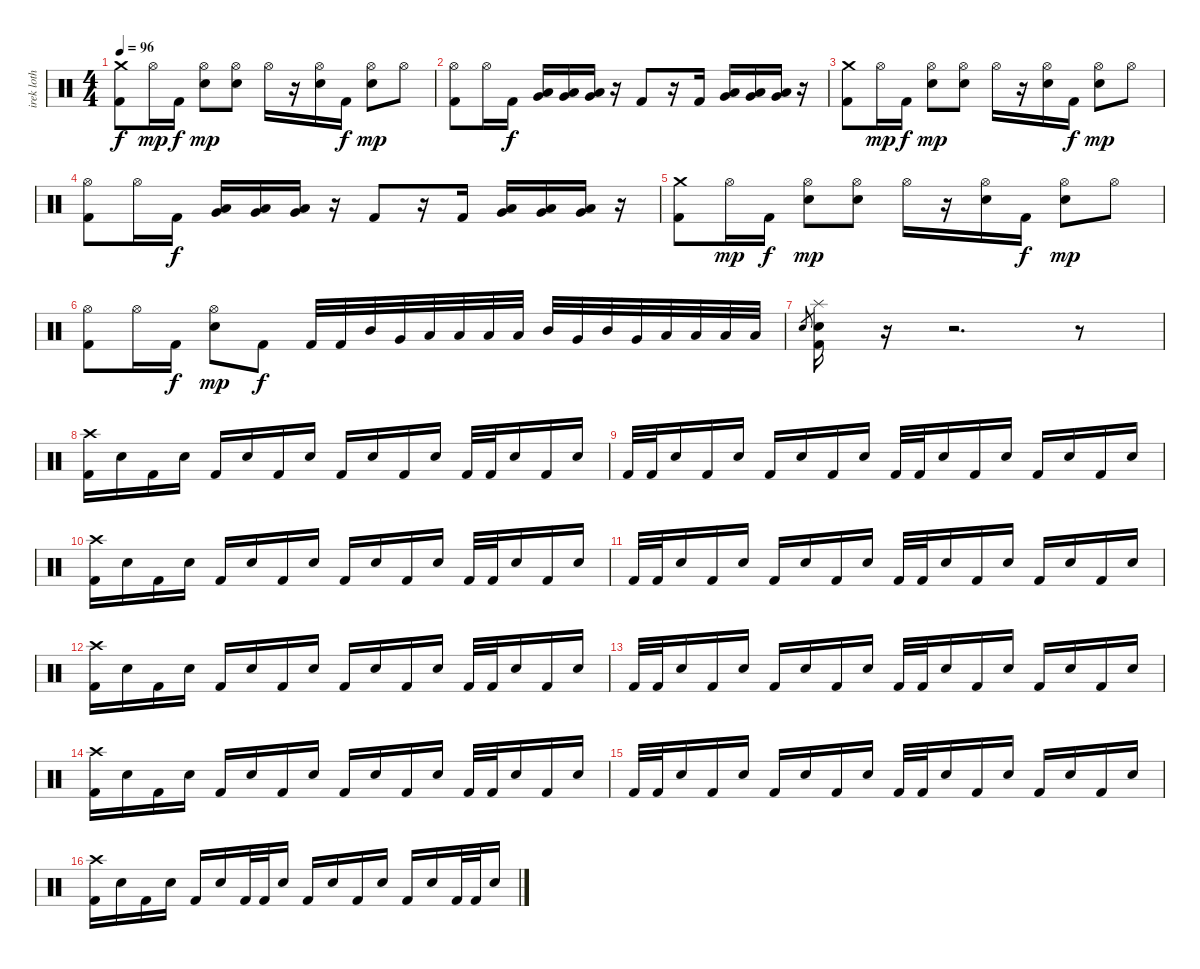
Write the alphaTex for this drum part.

\track ("irek loth" "irek loth") {instrument percussion}
\staff {score}
\articulation defaults
\ts (4 4)
\tempo 96
\clef neutral
\ks c
("Crash medium (hit)" "Kick (hit) 2").8{dy f} "Hi-Hat (open)".16{dy mp} "Kick (hit) 2".16{dy f} ("Snare (hit) 2" "Hi-Hat (open)").8{dy mp} ("Snare (hit) 2" "Hi-Hat (open)").8 "Hi-Hat (open)".16 r.16 ("Snare (hit) 2" "Hi-Hat (open)").16 "Kick (hit) 2".16{dy f} ("Snare (hit) 2" "Hi-Hat (open)").8{dy mp} "Hi-Hat (open)".8 |
("Hi-Hat (open)" "Kick (hit) 2").8 "Hi-Hat (open)".16 "Kick (hit) 2".16{dy f} ("Low Tom (hit)" "Very Low Tom (hit)").16 ("Low Tom (hit)" "Very Low Tom (hit)").16 ("Very Low Tom (hit)" "Low Floor Tom (hit)").16 r.16 "Kick (hit) 2".8 r.16 "Kick (hit) 2".16 ("Low Tom (hit)" "Very Low Tom (hit)").16 ("Low Tom (hit)" "Very Low Tom (hit)").16 ("Very Low Tom (hit)" "Low Floor Tom (hit)").16 r.16 |
("Crash medium (hit)" "Kick (hit) 2").8 "Hi-Hat (open)".16{dy mp} "Kick (hit) 2".16{dy f} ("Snare (hit) 2" "Hi-Hat (open)").8{dy mp} ("Snare (hit) 2" "Hi-Hat (open)").8 "Hi-Hat (open)".16 r.16 ("Snare (hit) 2" "Hi-Hat (open)").16 "Kick (hit) 2".16{dy f} ("Snare (hit) 2" "Hi-Hat (open)").8{dy mp} "Hi-Hat (open)".8 |
("Hi-Hat (open)" "Kick (hit) 2").8 "Hi-Hat (open)".16 "Kick (hit) 2".16{dy f} ("Low Tom (hit)" "Very Low Tom (hit)").16 ("Low Tom (hit)" "Very Low Tom (hit)").16 ("Very Low Tom (hit)" "Low Floor Tom (hit)").16 r.16 "Kick (hit) 2".8 r.16 "Kick (hit) 2".16 ("Low Tom (hit)" "Very Low Tom (hit)").16 ("Low Tom (hit)" "Very Low Tom (hit)").16 ("Very Low Tom (hit)" "Low Floor Tom (hit)").16 r.16 |
("Crash medium (hit)" "Kick (hit) 2").8 "Hi-Hat (open)".16{dy mp} "Kick (hit) 2".16{dy f} ("Snare (hit) 2" "Hi-Hat (open)").8{dy mp} ("Snare (hit) 2" "Hi-Hat (open)").8 "Hi-Hat (open)".16 r.16 ("Snare (hit) 2" "Hi-Hat (open)").16 "Kick (hit) 2".16{dy f} ("Snare (hit) 2" "Hi-Hat (open)").8{dy mp} "Hi-Hat (open)".8 |
("Hi-Hat (open)" "Kick (hit) 2").8 "Hi-Hat (open)".16 "Kick (hit) 2".16{dy f} ("Snare (hit) 2" "Hi-Hat (open)").8{dy mp} "Kick (hit) 2".8{dy f} "Kick (hit) 2".32 "Kick (hit) 2".32 "Mid Tom (hit)".32 "Very Low Tom (hit)".32 "Low Tom (hit)".32 "Low Floor Tom (hit)".32 "Low Tom (hit)".32 "Low Floor Tom (hit)".32 "Mid Tom (hit)".32 "Very Low Tom (hit)".32 "Mid Tom (hit)".32 "Very Low Tom (hit)".32 "Low Tom (hit)".32 "Low Floor Tom (hit)".32 "Low Tom (hit)".32 "Low Floor Tom (hit)".32 |
"Snare (hit) 2".8{gr} ("Snare (hit) 2" "Kick (hit) 2" "Splash (hit)").16 r.16 r.2{d} r.8 |
("Crash high (hit)" "Kick (hit) 2").16 "Snare (hit) 2".16 "Kick (hit) 2".16 "Snare (hit) 2".16 "Kick (hit) 2".16 "Snare (hit) 2".16 "Kick (hit) 2".16 "Snare (hit) 2".16 "Kick (hit) 2".16 "Snare (hit) 2".16 "Kick (hit) 2".16 "Snare (hit) 2".16 "Kick (hit) 2".32 "Kick (hit) 2".32 "Snare (hit) 2".16 "Kick (hit) 2".16 "Snare (hit) 2".16 |
"Kick (hit) 2".32 "Kick (hit) 2".32 "Snare (hit) 2".16 "Kick (hit) 2".16 "Snare (hit) 2".16 "Kick (hit) 2".16 "Snare (hit) 2".16 "Kick (hit) 2".16 "Snare (hit) 2".16 "Kick (hit) 2".32 "Kick (hit) 2".32 "Snare (hit) 2".16 "Kick (hit) 2".16 "Snare (hit) 2".16 "Kick (hit) 2".16 "Snare (hit) 2".16 "Kick (hit) 2".16 "Snare (hit) 2".16 |
("Crash high (hit)" "Kick (hit) 2").16 "Snare (hit) 2".16 "Kick (hit) 2".16 "Snare (hit) 2".16 "Kick (hit) 2".16 "Snare (hit) 2".16 "Kick (hit) 2".16 "Snare (hit) 2".16 "Kick (hit) 2".16 "Snare (hit) 2".16 "Kick (hit) 2".16 "Snare (hit) 2".16 "Kick (hit) 2".32 "Kick (hit) 2".32 "Snare (hit) 2".16 "Kick (hit) 2".16 "Snare (hit) 2".16 |
"Kick (hit) 2".32 "Kick (hit) 2".32 "Snare (hit) 2".16 "Kick (hit) 2".16 "Snare (hit) 2".16 "Kick (hit) 2".16 "Snare (hit) 2".16 "Kick (hit) 2".16 "Snare (hit) 2".16 "Kick (hit) 2".32 "Kick (hit) 2".32 "Snare (hit) 2".16 "Kick (hit) 2".16 "Snare (hit) 2".16 "Kick (hit) 2".16 "Snare (hit) 2".16 "Kick (hit) 2".16 "Snare (hit) 2".16 |
("Crash high (hit)" "Kick (hit) 2").16 "Snare (hit) 2".16 "Kick (hit) 2".16 "Snare (hit) 2".16 "Kick (hit) 2".16 "Snare (hit) 2".16 "Kick (hit) 2".16 "Snare (hit) 2".16 "Kick (hit) 2".16 "Snare (hit) 2".16 "Kick (hit) 2".16 "Snare (hit) 2".16 "Kick (hit) 2".32 "Kick (hit) 2".32 "Snare (hit) 2".16 "Kick (hit) 2".16 "Snare (hit) 2".16 |
"Kick (hit) 2".32 "Kick (hit) 2".32 "Snare (hit) 2".16 "Kick (hit) 2".16 "Snare (hit) 2".16 "Kick (hit) 2".16 "Snare (hit) 2".16 "Kick (hit) 2".16 "Snare (hit) 2".16 "Kick (hit) 2".32 "Kick (hit) 2".32 "Snare (hit) 2".16 "Kick (hit) 2".16 "Snare (hit) 2".16 "Kick (hit) 2".16 "Snare (hit) 2".16 "Kick (hit) 2".16 "Snare (hit) 2".16 |
("Crash high (hit)" "Kick (hit) 2").16 "Snare (hit) 2".16 "Kick (hit) 2".16 "Snare (hit) 2".16 "Kick (hit) 2".16 "Snare (hit) 2".16 "Kick (hit) 2".16 "Snare (hit) 2".16 "Kick (hit) 2".16 "Snare (hit) 2".16 "Kick (hit) 2".16 "Snare (hit) 2".16 "Kick (hit) 2".32 "Kick (hit) 2".32 "Snare (hit) 2".16 "Kick (hit) 2".16 "Snare (hit) 2".16 |
"Kick (hit) 2".32 "Kick (hit) 2".32 "Snare (hit) 2".16 "Kick (hit) 2".16 "Snare (hit) 2".16 "Kick (hit) 2".16 "Snare (hit) 2".16 "Kick (hit) 2".16 "Snare (hit) 2".16 "Kick (hit) 2".32 "Kick (hit) 2".32 "Snare (hit) 2".16 "Kick (hit) 2".16 "Snare (hit) 2".16 "Kick (hit) 2".16 "Snare (hit) 2".16 "Kick (hit) 2".16 "Snare (hit) 2".16 |
("Crash high (hit)" "Kick (hit) 2").16 "Snare (hit) 2".16 "Kick (hit) 2".16 "Snare (hit) 2".16 "Kick (hit) 2".16 "Snare (hit) 2".16 "Kick (hit) 2".32 "Kick (hit) 2".32 "Snare (hit) 2".16 "Kick (hit) 2".16 "Snare (hit) 2".16 "Kick (hit) 2".16 "Snare (hit) 2".16 "Kick (hit) 2".16 "Snare (hit) 2".16 "Kick (hit) 2".32 "Kick (hit) 2".32 "Snare (hit) 2".16
